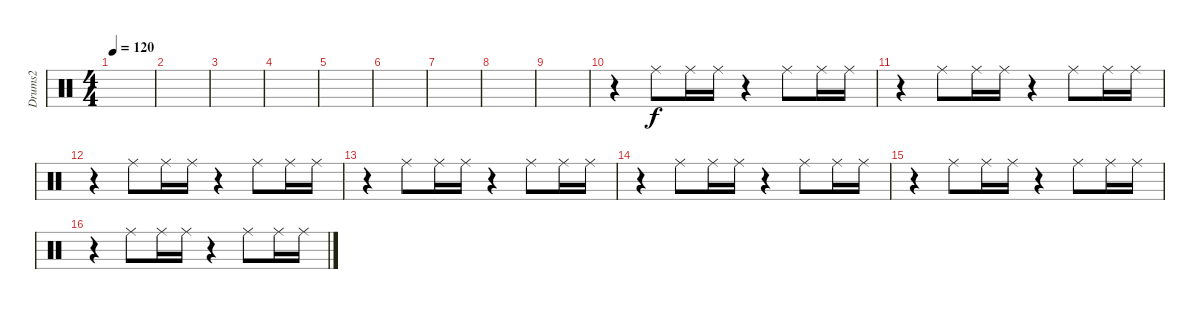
\track ("Drums2" "Drums2") {instrument percussion}
\staff {score}
\articulation defaults
\ts (4 4)
\tempo 120
\clef neutral
\ks c
|
|
|
|
|
|
|
|
|
r.4 "Ride (middle)".8 "Ride (middle)".16 "Ride (middle)".16 r.4 "Ride (middle)".8 "Ride (middle)".16 "Ride (middle)".16 |
r.4 "Ride (middle)".8 "Ride (middle)".16 "Ride (middle)".16 r.4 "Ride (middle)".8 "Ride (middle)".16 "Ride (middle)".16 |
r.4 "Ride (middle)".8 "Ride (middle)".16 "Ride (middle)".16 r.4 "Ride (middle)".8 "Ride (middle)".16 "Ride (middle)".16 |
r.4 "Ride (middle)".8 "Ride (middle)".16 "Ride (middle)".16 r.4 "Ride (middle)".8 "Ride (middle)".16 "Ride (middle)".16 |
r.4 "Ride (middle)".8 "Ride (middle)".16 "Ride (middle)".16 r.4 "Ride (middle)".8 "Ride (middle)".16 "Ride (middle)".16 |
r.4 "Ride (middle)".8 "Ride (middle)".16 "Ride (middle)".16 r.4 "Ride (middle)".8 "Ride (middle)".16 "Ride (middle)".16 |
r.4 "Ride (middle)".8 "Ride (middle)".16 "Ride (middle)".16 r.4 "Ride (middle)".8 "Ride (middle)".16 "Ride (middle)".16
